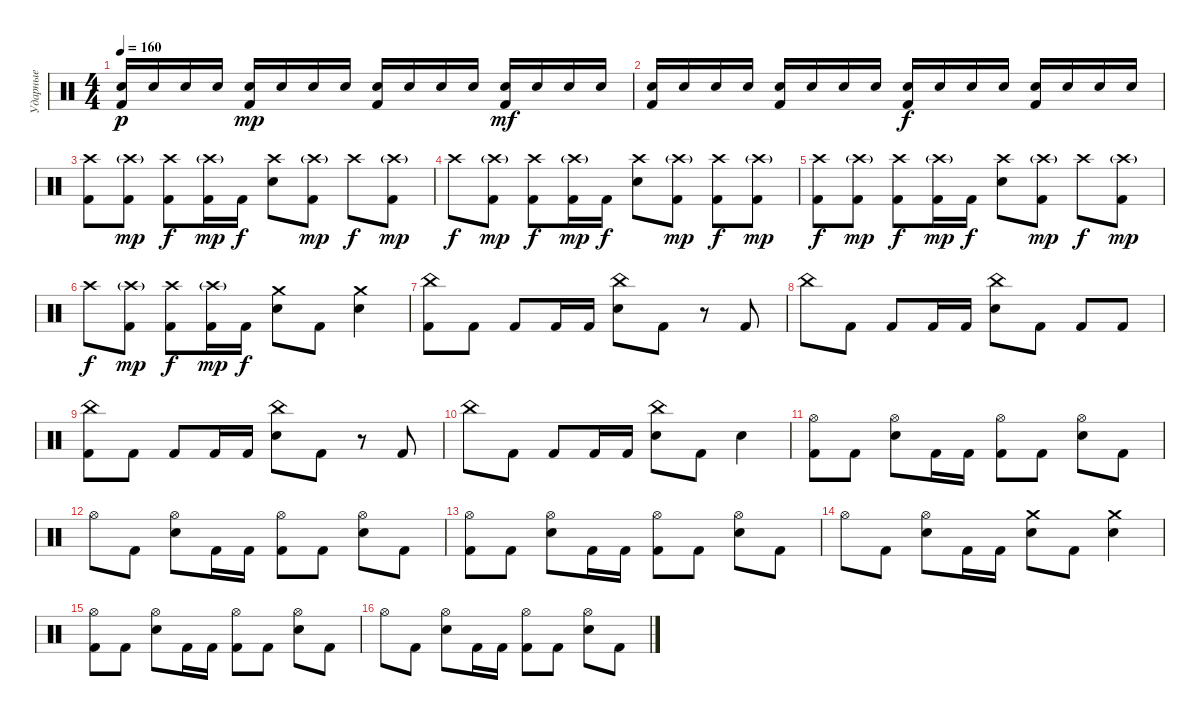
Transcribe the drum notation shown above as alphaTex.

\track ("Ударные" "Ударные") {instrument percussion}
\staff {score}
\articulation defaults
\ts (4 4)
\tempo 160
\clef neutral
\ks c
("Snare (hit) 2" "Kick (hit) 2").16{dy p} "Snare (hit) 2".16 "Snare (hit) 2".16 "Snare (hit) 2".16 ("Snare (hit) 2" "Kick (hit) 2").16{dy mp} "Snare (hit) 2".16 "Snare (hit) 2".16 "Snare (hit) 2".16 ("Snare (hit) 2" "Kick (hit) 2").16 "Snare (hit) 2".16 "Snare (hit) 2".16 "Snare (hit) 2".16 ("Snare (hit) 2" "Kick (hit) 2").16{dy mf} "Snare (hit) 2".16 "Snare (hit) 2".16 "Snare (hit) 2".16 |
("Snare (hit) 2" "Kick (hit) 2").16 "Snare (hit) 2".16 "Snare (hit) 2".16 "Snare (hit) 2".16 ("Snare (hit) 2" "Kick (hit) 2").16 "Snare (hit) 2".16 "Snare (hit) 2".16 "Snare (hit) 2".16 ("Snare (hit) 2" "Kick (hit) 2").16{dy f} "Snare (hit) 2".16 "Snare (hit) 2".16 "Snare (hit) 2".16 ("Snare (hit) 2" "Kick (hit) 2").16 "Snare (hit) 2".16 "Snare (hit) 2".16 "Snare (hit) 2".16 |
("Crash high (hit)" "Kick (hit) 2").8 ("Crash high (hit)"{g} "Kick (hit) 2").8{dy mp} ("Crash high (hit)" "Kick (hit) 2").8{dy f} ("Crash high (hit)"{g} "Kick (hit) 2").16{dy mp} "Kick (hit) 2".16{dy f} ("Crash high (hit)" "Snare (hit) 2").8 ("Crash high (hit)"{g} "Kick (hit) 2").8{dy mp} "Crash high (hit)".8{dy f} ("Crash high (hit)"{g} "Kick (hit) 2").8{dy mp} |
"Crash high (hit)".8{dy f} ("Crash high (hit)"{g} "Kick (hit) 2").8{dy mp} ("Crash high (hit)" "Kick (hit) 2").8{dy f} ("Crash high (hit)"{g} "Kick (hit) 2").16{dy mp} "Kick (hit) 2".16{dy f} ("Crash high (hit)" "Snare (hit) 2").8 ("Crash high (hit)"{g} "Kick (hit) 2").8{dy mp} ("Crash high (hit)" "Kick (hit) 2").8{dy f} ("Crash high (hit)"{g} "Kick (hit) 2").8{dy mp} |
("Crash high (hit)" "Kick (hit) 2").8{dy f} ("Crash high (hit)"{g} "Kick (hit) 2").8{dy mp} ("Crash high (hit)" "Kick (hit) 2").8{dy f} ("Crash high (hit)"{g} "Kick (hit) 2").16{dy mp} "Kick (hit) 2".16{dy f} ("Crash high (hit)" "Snare (hit) 2").8 ("Crash high (hit)"{g} "Kick (hit) 2").8{dy mp} "Crash high (hit)".8{dy f} ("Crash high (hit)"{g} "Kick (hit) 2").8{dy mp} |
"Crash high (hit)".8{dy f} ("Crash high (hit)"{g} "Kick (hit) 2").8{dy mp} ("Crash high (hit)" "Kick (hit) 2").8{dy f} ("Crash high (hit)"{g} "Kick (hit) 2").16{dy mp} "Kick (hit) 2".16{dy f} ("Crash medium (hit)" "Snare (hit) 2").8 "Kick (hit) 2".8 ("Crash medium (hit)" "Snare (hit) 2").4 |
("China (hit)" "Kick (hit) 2").8 "Kick (hit) 2".8 "Kick (hit) 2".8 "Kick (hit) 2".16 "Kick (hit) 2".16 ("China (hit)" "Snare (hit) 2").8 "Kick (hit) 2".8 r.8 "Kick (hit) 2".8 |
"China (hit)".8 "Kick (hit) 2".8 "Kick (hit) 2".8 "Kick (hit) 2".16 "Kick (hit) 2".16 ("China (hit)" "Snare (hit) 2").8 "Kick (hit) 2".8 "Kick (hit) 2".8 "Kick (hit) 2".8 |
("China (hit)" "Kick (hit) 2").8 "Kick (hit) 2".8 "Kick (hit) 2".8 "Kick (hit) 2".16 "Kick (hit) 2".16 ("China (hit)" "Snare (hit) 2").8 "Kick (hit) 2".8 r.8 "Kick (hit) 2".8 |
"China (hit)".8 "Kick (hit) 2".8 "Kick (hit) 2".8 "Kick (hit) 2".16 "Kick (hit) 2".16 ("China (hit)" "Snare (hit) 2").8 "Kick (hit) 2".8 "Snare (hit) 2".4 |
("Hi-Hat (open)" "Kick (hit) 2").8 "Kick (hit) 2".8 ("Hi-Hat (open)" "Snare (hit) 2").8 "Kick (hit) 2".16 "Kick (hit) 2".16 ("Hi-Hat (open)" "Kick (hit) 2").8 "Kick (hit) 2".8 ("Hi-Hat (open)" "Snare (hit) 2").8 "Kick (hit) 2".8 |
"Hi-Hat (open)".8 "Kick (hit) 2".8 ("Hi-Hat (open)" "Snare (hit) 2").8 "Kick (hit) 2".16 "Kick (hit) 2".16 ("Hi-Hat (open)" "Kick (hit) 2").8 "Kick (hit) 2".8 ("Hi-Hat (open)" "Snare (hit) 2").8 "Kick (hit) 2".8 |
("Hi-Hat (open)" "Kick (hit) 2").8 "Kick (hit) 2".8 ("Hi-Hat (open)" "Snare (hit) 2").8 "Kick (hit) 2".16 "Kick (hit) 2".16 ("Hi-Hat (open)" "Kick (hit) 2").8 "Kick (hit) 2".8 ("Hi-Hat (open)" "Snare (hit) 2").8 "Kick (hit) 2".8 |
"Hi-Hat (open)".8 "Kick (hit) 2".8 ("Hi-Hat (open)" "Snare (hit) 2").8 "Kick (hit) 2".16 "Kick (hit) 2".16 ("Crash medium (hit)" "Snare (hit) 2").8 "Kick (hit) 2".8 ("Crash medium (hit)" "Snare (hit) 2").4 |
("Hi-Hat (open)" "Kick (hit) 2").8 "Kick (hit) 2".8 ("Hi-Hat (open)" "Snare (hit) 2").8 "Kick (hit) 2".16 "Kick (hit) 2".16 ("Hi-Hat (open)" "Kick (hit) 2").8 "Kick (hit) 2".8 ("Hi-Hat (open)" "Snare (hit) 2").8 "Kick (hit) 2".8 |
"Hi-Hat (open)".8 "Kick (hit) 2".8 ("Hi-Hat (open)" "Snare (hit) 2").8 "Kick (hit) 2".16 "Kick (hit) 2".16 ("Hi-Hat (open)" "Kick (hit) 2").8 "Kick (hit) 2".8 ("Hi-Hat (open)" "Snare (hit) 2").8 "Kick (hit) 2".8
